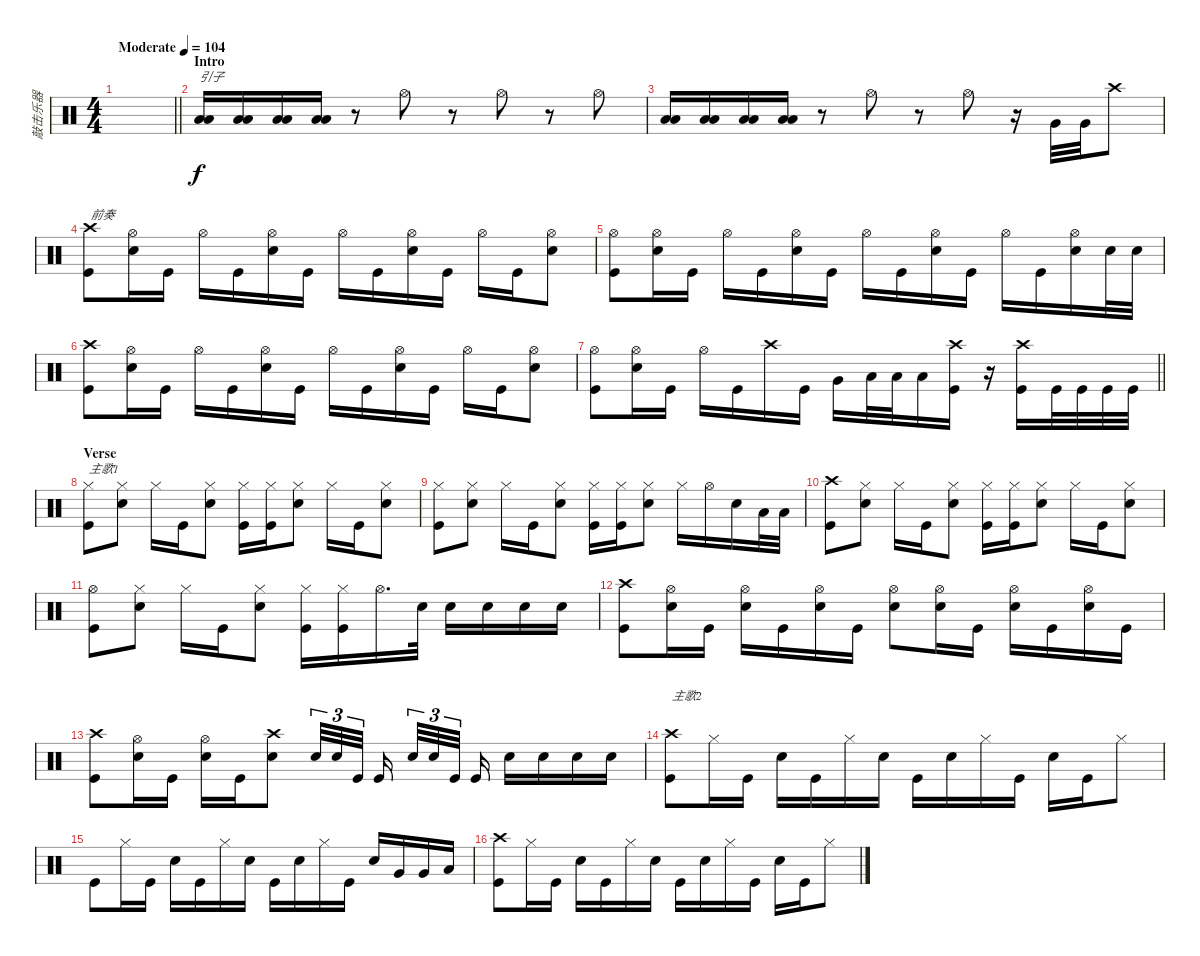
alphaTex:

\track ("敲击乐器" "敲击乐器") {instrument percussion}
\staff {score}
\articulation defaults
\ts (4 4)
\tempo (104 "Moderate")
\clef neutral
\barLineRight lightlight
\ks c
|
\section ("" "Intro")
("Low Tom (hit)" "Low Floor Tom (hit)").16{txt "引子"} ("Low Tom (hit)" "Low Floor Tom (hit)").16 ("Low Tom (hit)" "Low Floor Tom (hit)").16 ("Low Tom (hit)" "Low Floor Tom (hit)").16 r.8 "Hi-Hat (open)".8 r.8 "Hi-Hat (open)".8 r.8 "Hi-Hat (open)".8 |
("Low Tom (hit)" "Low Floor Tom (hit)").16 ("Low Tom (hit)" "Low Floor Tom (hit)").16 ("Low Tom (hit)" "Low Floor Tom (hit)").16 ("Low Tom (hit)" "Low Floor Tom (hit)").16 r.8 "Hi-Hat (open)".8 r.8 "Hi-Hat (open)".8 r.16 "Very Low Tom (hit)".32 "Very Low Tom (hit)".32 "Crash high (hit)".8 |
("Crash high (hit)" "Kick (hit)").8{txt "前奏"} ("Snare (hit) 2" "Hi-Hat (open)").16 "Kick (hit)".16 "Hi-Hat (open)".16 "Kick (hit)".16 ("Snare (hit) 2" "Hi-Hat (open)").16 "Kick (hit)".16 "Hi-Hat (open)".16 "Kick (hit)".16 ("Snare (hit) 2" "Hi-Hat (open)").16 "Kick (hit)".16 "Hi-Hat (open)".16 "Kick (hit)".16 ("Snare (hit) 2" "Hi-Hat (open)").8 |
("Hi-Hat (open)" "Kick (hit)").8 ("Snare (hit) 2" "Hi-Hat (open)").16 "Kick (hit)".16 "Hi-Hat (open)".16 "Kick (hit)".16 ("Snare (hit) 2" "Hi-Hat (open)").16 "Kick (hit)".16 "Hi-Hat (open)".16 "Kick (hit)".16 ("Snare (hit) 2" "Hi-Hat (open)").16 "Kick (hit)".16 "Hi-Hat (open)".16 "Kick (hit)".16 ("Snare (hit) 2" "Hi-Hat (open)").16 "Snare (hit) 2".32 "Snare (hit) 2".32 |
("Crash high (hit)" "Kick (hit)").8 ("Snare (hit) 2" "Hi-Hat (open)").16 "Kick (hit)".16 "Hi-Hat (open)".16 "Kick (hit)".16 ("Snare (hit) 2" "Hi-Hat (open)").16 "Kick (hit)".16 "Hi-Hat (open)".16 "Kick (hit)".16 ("Snare (hit) 2" "Hi-Hat (open)").16 "Kick (hit)".16 "Hi-Hat (open)".16 "Kick (hit)".16 ("Snare (hit) 2" "Hi-Hat (open)").8 |
\barLineRight lightlight
("Hi-Hat (open)" "Kick (hit)").8 ("Snare (hit) 2" "Hi-Hat (open)").16 "Kick (hit)".16 "Hi-Hat (open)".16 "Kick (hit)".16 "Crash high (hit)".16 "Kick (hit)".16 "Very Low Tom (hit)".16 "Low Floor Tom (hit)".32 "Low Floor Tom (hit)".32 "Low Floor Tom (hit)".16 ("Crash high (hit)" "Kick (hit)").16 r.16 ("Crash high (hit)" "Kick (hit)").16 "Kick (hit)".32 "Kick (hit)".32 "Kick (hit)".32 "Kick (hit)".32 |
\section ("" "Verse")
("Hi-Hat (closed)" "Kick (hit)").8{txt "主歌1"} ("Snare (hit) 2" "Hi-Hat (closed)").8 "Hi-Hat (closed)".16 "Kick (hit)".16 ("Snare (hit) 2" "Hi-Hat (closed)").8 ("Hi-Hat (closed)" "Kick (hit)").16 ("Kick (hit)" "Hi-Hat (closed)").16 ("Snare (hit) 2" "Hi-Hat (closed)").8 "Hi-Hat (closed)".16 "Kick (hit)".16 ("Snare (hit) 2" "Hi-Hat (closed)").8 |
("Hi-Hat (closed)" "Kick (hit)").8 ("Snare (hit) 2" "Hi-Hat (closed)").8 "Hi-Hat (closed)".16 "Kick (hit)".16 ("Snare (hit) 2" "Hi-Hat (closed)").8 ("Hi-Hat (closed)" "Kick (hit)").16 ("Kick (hit)" "Hi-Hat (closed)").16 ("Snare (hit) 2" "Hi-Hat (closed)").8 "Hi-Hat (closed)".16 "Hi-Hat (open)".16 "Snare (hit) 2".16 "Low Floor Tom (hit)".32 "Low Floor Tom (hit)".32 |
("Crash high (hit)" "Kick (hit)").8 ("Snare (hit) 2" "Hi-Hat (closed)").8 "Hi-Hat (closed)".16 "Kick (hit)".16 ("Snare (hit) 2" "Hi-Hat (closed)").8 ("Hi-Hat (closed)" "Kick (hit)").16 ("Kick (hit)" "Hi-Hat (closed)").16 ("Snare (hit) 2" "Hi-Hat (closed)").8 "Hi-Hat (closed)".16 "Kick (hit)".16 ("Snare (hit) 2" "Hi-Hat (closed)").8 |
("Hi-Hat (open)" "Kick (hit)").8 ("Snare (hit) 2" "Hi-Hat (closed)").8 "Hi-Hat (closed)".16 "Kick (hit)".16 ("Snare (hit) 2" "Hi-Hat (closed)").8 ("Hi-Hat (closed)" "Kick (hit)").16 ("Hi-Hat (closed)" "Kick (hit)").16 "Hi-Hat (open)".16{d} "Snare (hit) 2".32 "Snare (hit) 2".16 "Snare (hit) 2".16 "Snare (hit) 2".16 "Snare (hit) 2".16 |
("Crash high (hit)" "Kick (hit)").8 ("Snare (hit) 2" "Hi-Hat (open)").16 "Kick (hit)".16 ("Snare (hit) 2" "Hi-Hat (open)").16 "Kick (hit)".16 ("Snare (hit) 2" "Hi-Hat (open)").16 "Kick (hit)".16 ("Hi-Hat (open)" "Snare (hit) 2").8 ("Snare (hit) 2" "Hi-Hat (open)").16 "Kick (hit)".16 ("Snare (hit) 2" "Hi-Hat (open)").16 "Kick (hit)".16 ("Snare (hit) 2" "Hi-Hat (open)").16 "Kick (hit)".16 |
("Crash high (hit)" "Kick (hit)").8 ("Snare (hit) 2" "Hi-Hat (open)").16 "Kick (hit)".16 ("Snare (hit) 2" "Hi-Hat (open)").16 "Kick (hit)".16 ("Snare (hit) 2" "Crash high (hit)").8 "Snare (hit) 2".32{tu (3 2)} "Snare (hit) 2".32{tu (3 2)} "Kick (hit)".32{tu (3 2) beam splitsecondary} "Kick (hit)".16{beam splitsecondary} "Snare (hit) 2".32{tu (3 2)} "Snare (hit) 2".32{tu (3 2)} "Kick (hit)".32{tu (3 2) beam splitsecondary} "Kick (hit)".16 "Snare (hit) 2".16 "Snare (hit) 2".16 "Snare (hit) 2".16 "Snare (hit) 2".16 |
("Crash high (hit)" "Kick (hit)").8{txt "主歌2"} "Hi-Hat (closed)".16 "Kick (hit)".16 "Snare (hit) 2".16 "Kick (hit)".16 "Hi-Hat (closed)".16 "Snare (hit) 2".16 "Kick (hit)".16 "Snare (hit) 2".16 "Hi-Hat (closed)".16 "Kick (hit)".16 "Snare (hit) 2".16 "Kick (hit)".16 "Hi-Hat (closed)".8 |
"Kick (hit)".8 "Hi-Hat (closed)".16 "Kick (hit)".16 "Snare (hit) 2".16 "Kick (hit)".16 "Hi-Hat (closed)".16 "Snare (hit) 2".16 "Kick (hit)".16 "Snare (hit) 2".16 "Hi-Hat (closed)".16 "Kick (hit)".16 "Snare (hit) 2".16 "Very Low Tom (hit)".16 "Very Low Tom (hit)".16 "Low Floor Tom (hit)".16 |
("Crash high (hit)" "Kick (hit)").8 "Hi-Hat (closed)".16 "Kick (hit)".16 "Snare (hit) 2".16 "Kick (hit)".16 "Hi-Hat (closed)".16 "Snare (hit) 2".16 "Kick (hit)".16 "Snare (hit) 2".16 "Hi-Hat (closed)".16 "Kick (hit)".16 "Snare (hit) 2".16 "Kick (hit)".16 "Hi-Hat (closed)".8
